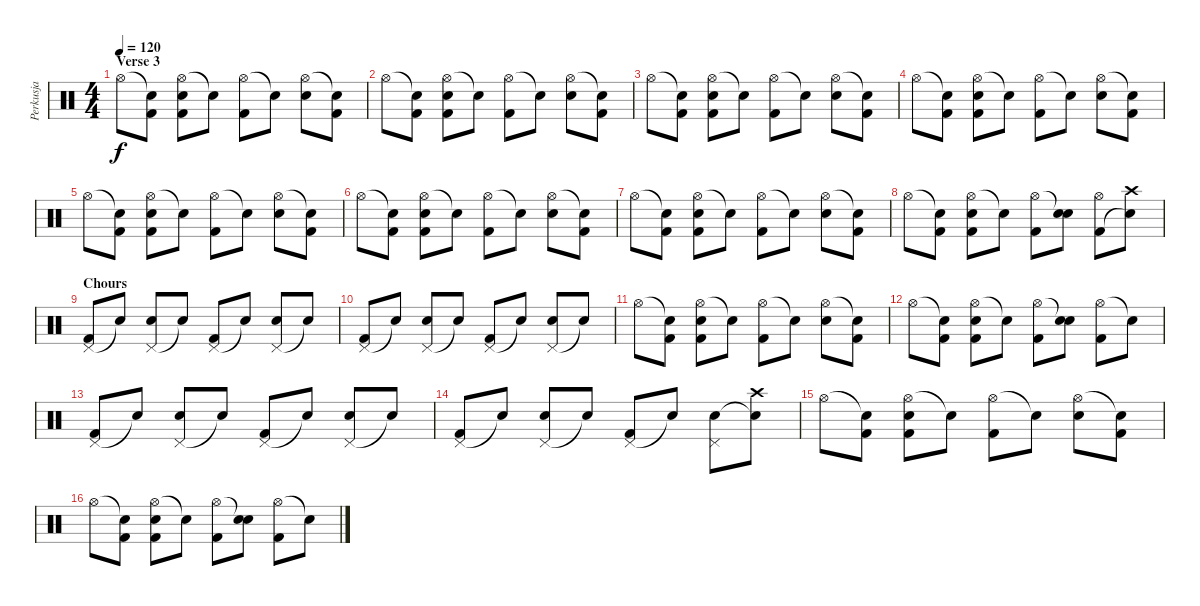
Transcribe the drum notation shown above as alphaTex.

\track ("Perkusja" "Perkusja") {instrument percussion}
\staff {score}
\articulation defaults
\ts (4 4)
\section ("" "Verse 3")
\tempo 120
\clef neutral
\ks c "Hi-Hat (open)"{t}.8{dy f}
("Snare (hit)"{t} "Kick (hit) 2").8 ("Hi-Hat (open)" "Electric Snare (hit)" "Kick (hit) 2").8 "Snare (hit)"{t}.8 ("Hi-Hat (open)" "Kick (hit) 2").8 "Snare (hit)"{t}.8 ("Hi-Hat (open)" "Electric Snare (hit)").8 ("Snare (hit)"{t} "Kick (hit) 2").8 |
"Hi-Hat (open)".8 ("Snare (hit)"{t} "Kick (hit) 2").8 ("Hi-Hat (open)" "Electric Snare (hit)" "Kick (hit) 2").8 "Snare (hit)"{t}.8 ("Hi-Hat (open)" "Kick (hit) 2").8 "Snare (hit)"{t}.8 ("Hi-Hat (open)" "Electric Snare (hit)").8 ("Snare (hit)"{t} "Kick (hit) 2").8 |
"Hi-Hat (open)".8 ("Snare (hit)"{t} "Kick (hit) 2").8 ("Hi-Hat (open)" "Electric Snare (hit)" "Kick (hit) 2").8 "Snare (hit)"{t}.8 ("Hi-Hat (open)" "Kick (hit) 2").8 "Snare (hit)"{t}.8 ("Hi-Hat (open)" "Electric Snare (hit)").8 ("Snare (hit)"{t} "Kick (hit) 2").8 |
"Hi-Hat (open)".8 ("Snare (hit)"{t} "Kick (hit) 2").8 ("Hi-Hat (open)" "Electric Snare (hit)" "Kick (hit) 2").8 "Snare (hit)"{t}.8 ("Hi-Hat (open)" "Kick (hit) 2").8 "Snare (hit)"{t}.8 ("Hi-Hat (open)" "Electric Snare (hit)").8 ("Snare (hit)"{t} "Kick (hit) 2").8 |
"Hi-Hat (open)".8 ("Snare (hit)"{t} "Kick (hit) 2").8 ("Hi-Hat (open)" "Electric Snare (hit)" "Kick (hit) 2").8 "Snare (hit)"{t}.8 ("Hi-Hat (open)" "Kick (hit) 2").8 "Snare (hit)"{t}.8 ("Hi-Hat (open)" "Electric Snare (hit)").8 ("Snare (hit)"{t} "Kick (hit) 2").8 |
"Hi-Hat (open)".8 ("Snare (hit)"{t} "Kick (hit) 2").8 ("Hi-Hat (open)" "Electric Snare (hit)" "Kick (hit) 2").8 "Snare (hit)"{t}.8 ("Hi-Hat (open)" "Kick (hit) 2").8 "Snare (hit)"{t}.8 ("Hi-Hat (open)" "Electric Snare (hit)").8 ("Snare (hit)"{t} "Kick (hit) 2").8 |
"Hi-Hat (open)".8 ("Snare (hit)"{t} "Kick (hit) 2").8 ("Hi-Hat (open)" "Electric Snare (hit)" "Kick (hit) 2").8 "Snare (hit)"{t}.8 ("Hi-Hat (open)" "Kick (hit) 2").8 "Snare (hit)"{t}.8 ("Hi-Hat (open)" "Electric Snare (hit)").8 ("Snare (hit)"{t} "Kick (hit) 2").8 |
"Hi-Hat (open)".8 ("Snare (hit)"{t} "Kick (hit) 2").8 ("Hi-Hat (open)" "Electric Snare (hit)" "Kick (hit) 2").8 "Snare (hit)"{t}.8 ("Hi-Hat (open)" "Kick (hit) 2").8 ("Snare (hit)"{t} "Electric Snare (hit)").8 ("Hi-Hat (open)" "Kick (hit) 2").8 ("Crash high (hit)" "Snare (hit)"{t}).8 |
\section ("" "Chours")
("Pedal Hi-Hat (hit)" "Kick (hit) 2").8 "Snare (hit)"{t}.8 ("Pedal Hi-Hat (hit)" "Electric Snare (hit)").8 "Snare (hit)"{t}.8 ("Pedal Hi-Hat (hit)" "Kick (hit) 2").8 "Snare (hit)"{t}.8 ("Pedal Hi-Hat (hit)" "Electric Snare (hit)").8 "Snare (hit)"{t}.8 |
("Pedal Hi-Hat (hit)" "Kick (hit) 2").8 "Snare (hit)"{t}.8 ("Pedal Hi-Hat (hit)" "Electric Snare (hit)").8 "Snare (hit)"{t}.8 ("Pedal Hi-Hat (hit)" "Kick (hit) 2").8 "Snare (hit)"{t}.8 ("Pedal Hi-Hat (hit)" "Electric Snare (hit)").8 "Snare (hit)"{t}.8 |
"Hi-Hat (open)".8 ("Snare (hit)"{t} "Kick (hit) 2").8 ("Hi-Hat (open)" "Electric Snare (hit)" "Kick (hit) 2").8 "Snare (hit)"{t}.8 ("Hi-Hat (open)" "Kick (hit) 2").8 "Snare (hit)"{t}.8 ("Hi-Hat (open)" "Electric Snare (hit)").8 ("Snare (hit)"{t} "Kick (hit) 2").8 |
"Hi-Hat (open)".8 ("Snare (hit)"{t} "Kick (hit) 2").8 ("Hi-Hat (open)" "Electric Snare (hit)" "Kick (hit) 2").8 "Snare (hit)"{t}.8 ("Hi-Hat (open)" "Kick (hit) 2").8 ("Snare (hit)"{t} "Electric Snare (hit)").8 ("Hi-Hat (open)" "Kick (hit) 2").8 "Snare (hit)"{t}.8 |
("Pedal Hi-Hat (hit)" "Kick (hit) 2").8 "Snare (hit)"{t}.8 ("Pedal Hi-Hat (hit)" "Electric Snare (hit)").8 "Snare (hit)"{t}.8 ("Pedal Hi-Hat (hit)" "Kick (hit) 2").8 "Snare (hit)"{t}.8 ("Pedal Hi-Hat (hit)" "Electric Snare (hit)").8 "Snare (hit)"{t}.8 |
("Pedal Hi-Hat (hit)" "Kick (hit) 2").8 "Snare (hit)"{t}.8 ("Pedal Hi-Hat (hit)" "Electric Snare (hit)").8 "Snare (hit)"{t}.8 ("Pedal Hi-Hat (hit)" "Kick (hit) 2").8 "Snare (hit)"{t}.8 ("Pedal Hi-Hat (hit)" "Electric Snare (hit)").8 ("Crash high (hit)" "Snare (hit)"{t}).8 |
"Hi-Hat (open)".8 ("Snare (hit)"{t} "Kick (hit) 2").8 ("Hi-Hat (open)" "Electric Snare (hit)" "Kick (hit) 2").8 "Snare (hit)"{t}.8 ("Hi-Hat (open)" "Kick (hit) 2").8 "Snare (hit)"{t}.8 ("Hi-Hat (open)" "Electric Snare (hit)").8 ("Snare (hit)"{t} "Kick (hit) 2").8 |
"Hi-Hat (open)".8 ("Snare (hit)"{t} "Kick (hit) 2").8 ("Hi-Hat (open)" "Electric Snare (hit)" "Kick (hit) 2").8 "Snare (hit)"{t}.8 ("Hi-Hat (open)" "Kick (hit) 2").8 ("Snare (hit)"{t} "Electric Snare (hit)").8 ("Hi-Hat (open)" "Kick (hit) 2").8 "Snare (hit)"{t}.8
